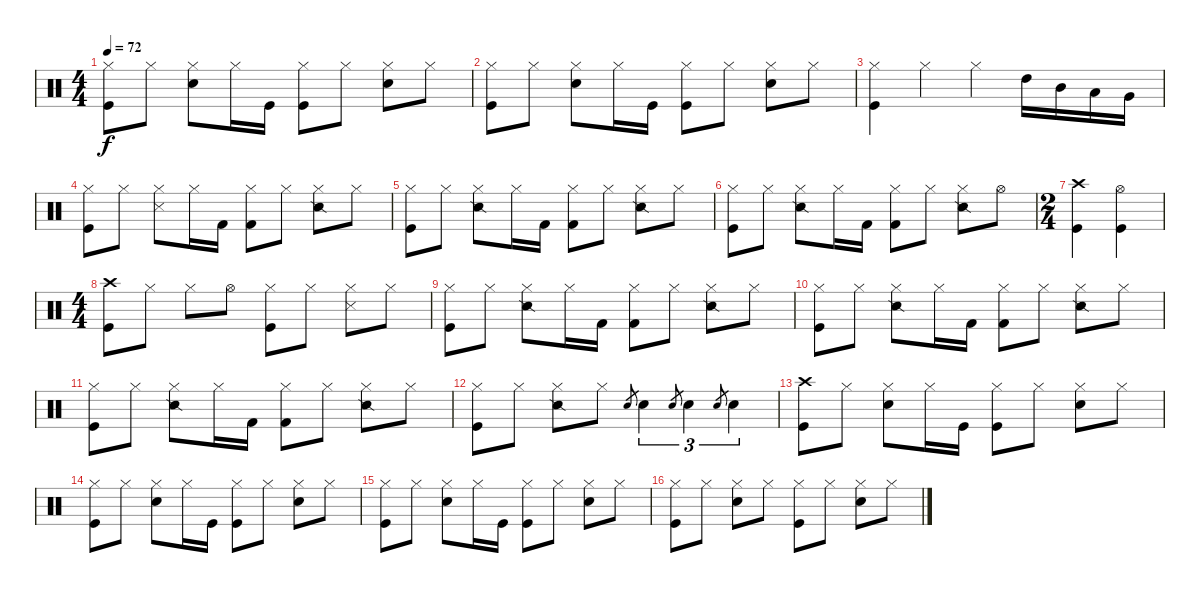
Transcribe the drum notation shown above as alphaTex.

\track "" {instrument percussion}
\staff {score}
\articulation defaults
\ts (4 4)
\tempo 72
\clef neutral
\ks c
("Kick (hit)" "Hi-Hat (closed)").8{dy f} "Hi-Hat (closed)".8 ("Electric Snare (hit)" "Hi-Hat (closed)").8 "Hi-Hat (closed)".16 "Kick (hit)".16 ("Kick (hit)" "Hi-Hat (closed)").8 "Hi-Hat (closed)".8 ("Snare (hit) 2" "Hi-Hat (closed)").8 "Hi-Hat (closed)".8 |
("Kick (hit)" "Hi-Hat (closed)").8 "Hi-Hat (closed)".8 ("Electric Snare (hit)" "Hi-Hat (closed)").8 "Hi-Hat (closed)".16 "Kick (hit)".16 ("Kick (hit)" "Hi-Hat (closed)").8 "Hi-Hat (closed)".8 ("Snare (hit) 2" "Hi-Hat (closed)").8 "Hi-Hat (closed)".8 |
("Kick (hit)" "Hi-Hat (closed)").4 "Hi-Hat (closed)".4 "Hi-Hat (closed)".4 "High Tom (hit)".16 "Mid Tom (hit)".16 "Low Tom (hit)".16 "Very Low Tom (hit)".16 |
("Kick (hit)" "Hi-Hat (closed)").8 "Hi-Hat (closed)".8 ("Hi-Hat (closed)" "Metronome (hit)").8 "Hi-Hat (closed)".16 "Kick (hit) 2".16 ("Kick (hit) 2" "Hi-Hat (closed)").8 "Hi-Hat (closed)".8 ("Snare (side stick) 2" "Hi-Hat (closed)").8 "Hi-Hat (closed)".8 |
("Kick (hit)" "Hi-Hat (closed)").8 "Hi-Hat (closed)".8 ("Snare (side stick) 2" "Hi-Hat (closed)").8 "Hi-Hat (closed)".16 "Kick (hit) 2".16 ("Kick (hit) 2" "Hi-Hat (closed)").8 "Hi-Hat (closed)".8 ("Snare (side stick) 2" "Hi-Hat (closed)").8 "Hi-Hat (closed)".8 |
("Kick (hit)" "Hi-Hat (closed)").8 "Hi-Hat (closed)".8 ("Snare (side stick) 2" "Hi-Hat (closed)").8 "Hi-Hat (closed)".16 "Kick (hit) 2".16 ("Kick (hit) 2" "Hi-Hat (closed)").8 "Hi-Hat (closed)".8 ("Snare (side stick) 2" "Hi-Hat (closed)").8 "Hi-Hat (open)".8 |
\ts (2 4)
("Kick (hit)" "Crash high (hit)").4 ("Hi-Hat (open)" "Kick (hit)").4 |
\ts (4 4)
("Crash high (hit)" "Kick (hit)").8 "Hi-Hat (closed)".8 "Hi-Hat (closed)".8 "Hi-Hat (open)".8 ("Kick (hit)" "Hi-Hat (closed)").8 "Hi-Hat (closed)".8 ("Snare (side stick) 3" "Hi-Hat (closed)").8 "Hi-Hat (closed)".8 |
("Kick (hit)" "Hi-Hat (closed)").8 "Hi-Hat (closed)".8 ("Snare (side stick) 2" "Hi-Hat (closed)").8 "Hi-Hat (closed)".16 "Kick (hit) 2".16 ("Kick (hit) 2" "Hi-Hat (closed)").8 "Hi-Hat (closed)".8 ("Snare (side stick) 2" "Hi-Hat (closed)").8 "Hi-Hat (closed)".8 |
("Kick (hit)" "Hi-Hat (closed)").8 "Hi-Hat (closed)".8 ("Snare (side stick) 2" "Hi-Hat (closed)").8 "Hi-Hat (closed)".16 "Kick (hit) 2".16 ("Kick (hit) 2" "Hi-Hat (closed)").8 "Hi-Hat (closed)".8 ("Snare (side stick) 2" "Hi-Hat (closed)").8 "Hi-Hat (closed)".8 |
("Kick (hit)" "Hi-Hat (closed)").8 "Hi-Hat (closed)".8 ("Snare (side stick) 2" "Hi-Hat (closed)").8 "Hi-Hat (closed)".16 "Kick (hit) 2".16 ("Kick (hit) 2" "Hi-Hat (closed)").8 "Hi-Hat (closed)".8 ("Snare (side stick) 2" "Hi-Hat (closed)").8 "Hi-Hat (closed)".8 |
("Kick (hit)" "Hi-Hat (closed)").8 "Hi-Hat (closed)".8 ("Snare (side stick) 2" "Hi-Hat (closed)").8 "Hi-Hat (closed)".8 "Electric Snare (hit)".8{gr} "Electric Snare (hit)".4{tu (3 2)} "Snare (hit) 2".8{gr} "Snare (hit) 2".4{tu (3 2)} "Snare (hit) 2".8{gr} "Snare (hit) 2".4{tu (3 2)} |
("Kick (hit)" "Crash high (hit)").8 "Hi-Hat (closed)".8 ("Electric Snare (hit)" "Hi-Hat (closed)").8 "Hi-Hat (closed)".16 "Kick (hit)".16 ("Kick (hit)" "Hi-Hat (closed)").8 "Hi-Hat (closed)".8 ("Snare (hit) 2" "Hi-Hat (closed)").8 "Hi-Hat (closed)".8 |
("Kick (hit)" "Hi-Hat (closed)").8 "Hi-Hat (closed)".8 ("Electric Snare (hit)" "Hi-Hat (closed)").8 "Hi-Hat (closed)".16 "Kick (hit)".16 ("Kick (hit)" "Hi-Hat (closed)").8 "Hi-Hat (closed)".8 ("Snare (hit) 2" "Hi-Hat (closed)").8 "Hi-Hat (closed)".8 |
("Kick (hit)" "Hi-Hat (closed)").8 "Hi-Hat (closed)".8 ("Electric Snare (hit)" "Hi-Hat (closed)").8 "Hi-Hat (closed)".16 "Kick (hit)".16 ("Kick (hit)" "Hi-Hat (closed)").8 "Hi-Hat (closed)".8 ("Snare (hit) 2" "Hi-Hat (closed)").8 "Hi-Hat (closed)".8 |
("Kick (hit)" "Hi-Hat (closed)").8 "Hi-Hat (closed)".8 ("Snare (hit) 2" "Hi-Hat (closed)").8 "Hi-Hat (closed)".8 ("Kick (hit)" "Hi-Hat (closed)").8 "Hi-Hat (closed)".8 ("Snare (hit) 2" "Hi-Hat (closed)").8 "Hi-Hat (closed)".8
